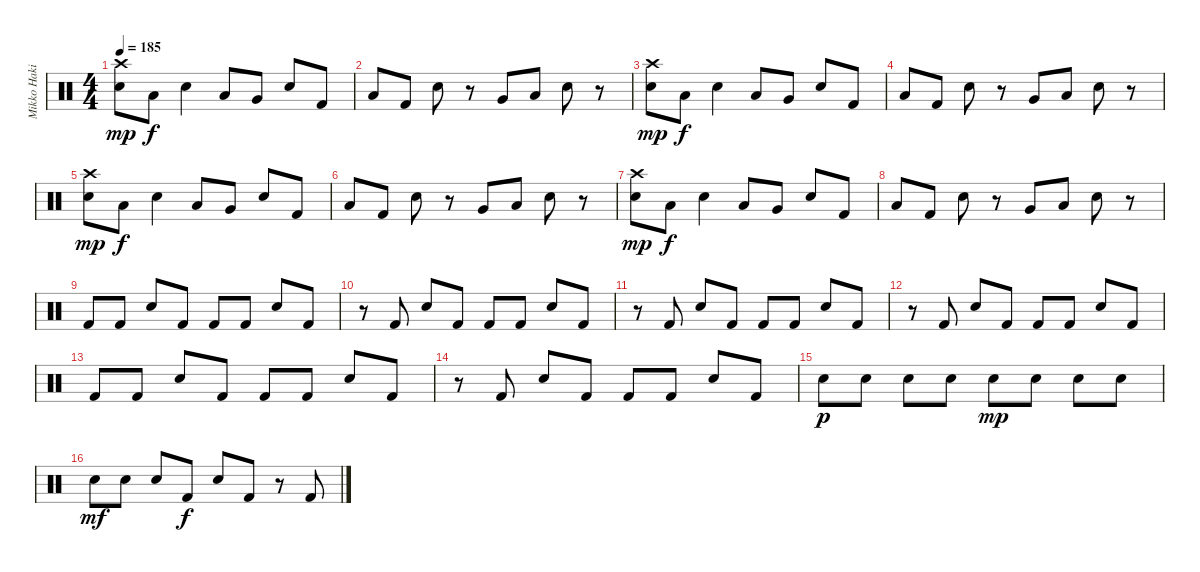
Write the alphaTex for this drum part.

\track ("Mikko Hakila" "Mikko Haki") {instrument percussion}
\staff {score}
\articulation defaults
\ts (4 4)
\tempo 185
\clef neutral
\ks c
("Crash high (hit)" "Snare (hit) 2").8{dy mp} "Low Floor Tom (hit)".8{dy f} "Snare (hit) 2".4 "Low Tom (hit)".8 "Very Low Tom (hit)".8 "Snare (hit) 2".8 "Kick (hit) 2".8 |
"Low Tom (hit)".8 "Kick (hit) 2".8 "Snare (hit) 2".8 r.8 "Very Low Tom (hit)".8 "Low Floor Tom (hit)".8 "Snare (hit) 2".8 r.8 |
("Crash high (hit)" "Snare (hit) 2").8{dy mp} "Low Floor Tom (hit)".8{dy f} "Snare (hit) 2".4 "Low Tom (hit)".8 "Very Low Tom (hit)".8 "Snare (hit) 2".8 "Kick (hit) 2".8 |
"Low Tom (hit)".8 "Kick (hit) 2".8 "Snare (hit) 2".8 r.8 "Very Low Tom (hit)".8 "Low Floor Tom (hit)".8 "Snare (hit) 2".8 r.8 |
("Crash high (hit)" "Snare (hit) 2").8{dy mp} "Low Floor Tom (hit)".8{dy f} "Snare (hit) 2".4 "Low Tom (hit)".8 "Very Low Tom (hit)".8 "Snare (hit) 2".8 "Kick (hit) 2".8 |
"Low Tom (hit)".8 "Kick (hit) 2".8 "Snare (hit) 2".8 r.8 "Very Low Tom (hit)".8 "Low Floor Tom (hit)".8 "Snare (hit) 2".8 r.8 |
("Crash high (hit)" "Snare (hit) 2").8{dy mp} "Low Floor Tom (hit)".8{dy f} "Snare (hit) 2".4 "Low Tom (hit)".8 "Very Low Tom (hit)".8 "Snare (hit) 2".8 "Kick (hit) 2".8 |
"Low Tom (hit)".8 "Kick (hit) 2".8 "Snare (hit) 2".8 r.8 "Very Low Tom (hit)".8 "Low Floor Tom (hit)".8 "Snare (hit) 2".8 r.8 |
"Kick (hit) 2".8 "Kick (hit) 2".8 "Snare (hit) 2".8 "Kick (hit) 2".8 "Kick (hit) 2".8 "Kick (hit) 2".8 "Snare (hit) 2".8 "Kick (hit) 2".8 |
r.8 "Kick (hit) 2".8 "Snare (hit) 2".8 "Kick (hit) 2".8 "Kick (hit) 2".8 "Kick (hit) 2".8 "Snare (hit) 2".8 "Kick (hit) 2".8 |
r.8 "Kick (hit) 2".8 "Snare (hit) 2".8 "Kick (hit) 2".8 "Kick (hit) 2".8 "Kick (hit) 2".8 "Snare (hit) 2".8 "Kick (hit) 2".8 |
r.8 "Kick (hit) 2".8 "Snare (hit) 2".8 "Kick (hit) 2".8 "Kick (hit) 2".8 "Kick (hit) 2".8 "Snare (hit) 2".8 "Kick (hit) 2".8 |
"Kick (hit) 2".8 "Kick (hit) 2".8 "Snare (hit) 2".8 "Kick (hit) 2".8 "Kick (hit) 2".8 "Kick (hit) 2".8 "Snare (hit) 2".8 "Kick (hit) 2".8 |
r.8 "Kick (hit) 2".8 "Snare (hit) 2".8 "Kick (hit) 2".8 "Kick (hit) 2".8 "Kick (hit) 2".8 "Snare (hit) 2".8 "Kick (hit) 2".8 |
"Snare (hit) 2".8{dy p} "Snare (hit) 2".8 "Snare (hit) 2".8 "Snare (hit) 2".8 "Snare (hit) 2".8{dy mp} "Snare (hit) 2".8 "Snare (hit) 2".8 "Snare (hit) 2".8 |
"Snare (hit) 2".8{dy mf} "Snare (hit) 2".8 "Snare (hit) 2".8 "Kick (hit) 2".8{dy f} "Snare (hit) 2".8 "Kick (hit) 2".8 r.8 "Kick (hit) 2".8
